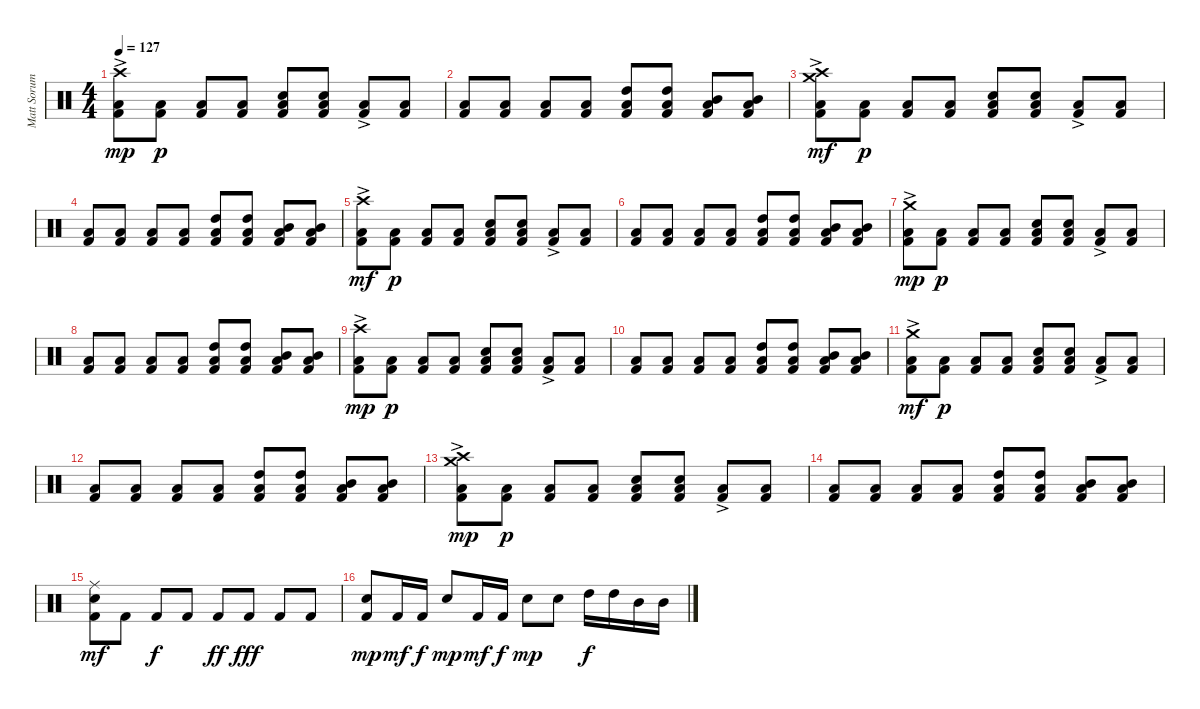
\track ("Matt Sorum" "Matt Sorum") {instrument percussion}
\staff {score}
\articulation defaults
\ts (4 4)
\tempo 127
\clef neutral
\ks c
("Kick (hit) 2"{ac} "Low Tom (hit)" "Crash high (hit)").8{dy mp} ("Kick (hit) 2" "Low Tom (hit)").8{dy p} ("Kick (hit) 2" "Low Tom (hit)").8 ("Kick (hit) 2" "Low Tom (hit)").8 ("Kick (hit) 2" "Snare (hit) 2" "Low Tom (hit)").8 ("Kick (hit) 2" "Snare (hit) 2" "Low Tom (hit)").8 ("Kick (hit) 2"{ac} "Low Tom (hit)").8 ("Kick (hit) 2" "Low Tom (hit)").8 |
("Kick (hit) 2" "Low Tom (hit)").8 ("Kick (hit) 2" "Low Tom (hit)").8 ("Kick (hit) 2" "Low Tom (hit)").8 ("Kick (hit) 2" "Low Tom (hit)").8 ("Kick (hit) 2" "High Tom (hit)" "Low Tom (hit)").8 ("Kick (hit) 2" "High Tom (hit)" "Low Tom (hit)").8 ("Kick (hit) 2" "Mid Tom (hit)" "Low Tom (hit)").8 ("Kick (hit) 2" "Mid Tom (hit)" "Low Tom (hit)").8 |
("Kick (hit) 2"{ac} "Low Tom (hit)" "Crash medium (hit)" "Crash high (hit)").8{dy mf} ("Kick (hit) 2" "Low Tom (hit)").8{dy p} ("Kick (hit) 2" "Low Tom (hit)").8 ("Kick (hit) 2" "Low Tom (hit)").8 ("Kick (hit) 2" "Snare (hit) 2" "Low Tom (hit)").8 ("Kick (hit) 2" "Snare (hit) 2" "Low Tom (hit)").8 ("Kick (hit) 2"{ac} "Low Tom (hit)").8 ("Kick (hit) 2" "Low Tom (hit)").8 |
("Kick (hit) 2" "Low Tom (hit)").8 ("Kick (hit) 2" "Low Tom (hit)").8 ("Kick (hit) 2" "Low Tom (hit)").8 ("Kick (hit) 2" "Low Tom (hit)").8 ("Kick (hit) 2" "High Tom (hit)" "Low Tom (hit)").8 ("Kick (hit) 2" "High Tom (hit)" "Low Tom (hit)").8 ("Kick (hit) 2" "Mid Tom (hit)" "Low Tom (hit)").8 ("Kick (hit) 2" "Mid Tom (hit)" "Low Tom (hit)").8 |
("Kick (hit) 2"{ac} "Low Tom (hit)" "Crash high (hit)").8{dy mf} ("Kick (hit) 2" "Low Tom (hit)").8{dy p} ("Kick (hit) 2" "Low Tom (hit)").8 ("Kick (hit) 2" "Low Tom (hit)").8 ("Kick (hit) 2" "Snare (hit) 2" "Low Tom (hit)").8 ("Kick (hit) 2" "Snare (hit) 2" "Low Tom (hit)").8 ("Kick (hit) 2"{ac} "Low Tom (hit)").8 ("Kick (hit) 2" "Low Tom (hit)").8 |
("Kick (hit) 2" "Low Tom (hit)").8 ("Kick (hit) 2" "Low Tom (hit)").8 ("Kick (hit) 2" "Low Tom (hit)").8 ("Kick (hit) 2" "Low Tom (hit)").8 ("Kick (hit) 2" "High Tom (hit)" "Low Tom (hit)").8 ("Kick (hit) 2" "High Tom (hit)" "Low Tom (hit)").8 ("Kick (hit) 2" "Mid Tom (hit)" "Low Tom (hit)").8 ("Kick (hit) 2" "Mid Tom (hit)" "Low Tom (hit)").8 |
("Kick (hit) 2"{ac} "Low Tom (hit)" "Crash medium (hit)").8{dy mp} ("Kick (hit) 2" "Low Tom (hit)").8{dy p} ("Kick (hit) 2" "Low Tom (hit)").8 ("Kick (hit) 2" "Low Tom (hit)").8 ("Kick (hit) 2" "Snare (hit) 2" "Low Tom (hit)").8 ("Kick (hit) 2" "Snare (hit) 2" "Low Tom (hit)").8 ("Kick (hit) 2"{ac} "Low Tom (hit)").8 ("Kick (hit) 2" "Low Tom (hit)").8 |
("Kick (hit) 2" "Low Tom (hit)").8 ("Kick (hit) 2" "Low Tom (hit)").8 ("Kick (hit) 2" "Low Tom (hit)").8 ("Kick (hit) 2" "Low Tom (hit)").8 ("Kick (hit) 2" "High Tom (hit)" "Low Tom (hit)").8 ("Kick (hit) 2" "High Tom (hit)" "Low Tom (hit)").8 ("Kick (hit) 2" "Mid Tom (hit)" "Low Tom (hit)").8 ("Kick (hit) 2" "Mid Tom (hit)" "Low Tom (hit)").8 |
("Kick (hit) 2"{ac} "Low Tom (hit)" "Crash high (hit)").8{dy mp} ("Kick (hit) 2" "Low Tom (hit)").8{dy p} ("Kick (hit) 2" "Low Tom (hit)").8 ("Kick (hit) 2" "Low Tom (hit)").8 ("Kick (hit) 2" "Snare (hit) 2" "Low Tom (hit)").8 ("Kick (hit) 2" "Snare (hit) 2" "Low Tom (hit)").8 ("Kick (hit) 2"{ac} "Low Tom (hit)").8 ("Kick (hit) 2" "Low Tom (hit)").8 |
("Kick (hit) 2" "Low Tom (hit)").8 ("Kick (hit) 2" "Low Tom (hit)").8 ("Kick (hit) 2" "Low Tom (hit)").8 ("Kick (hit) 2" "Low Tom (hit)").8 ("Kick (hit) 2" "High Tom (hit)" "Low Tom (hit)").8 ("Kick (hit) 2" "High Tom (hit)" "Low Tom (hit)").8 ("Kick (hit) 2" "Mid Tom (hit)" "Low Tom (hit)").8 ("Kick (hit) 2" "Mid Tom (hit)" "Low Tom (hit)").8 |
("Kick (hit) 2"{ac} "Low Tom (hit)" "Crash medium (hit)").8{dy mf} ("Kick (hit) 2" "Low Tom (hit)").8{dy p} ("Kick (hit) 2" "Low Tom (hit)").8 ("Kick (hit) 2" "Low Tom (hit)").8 ("Kick (hit) 2" "Snare (hit) 2" "Low Tom (hit)").8 ("Kick (hit) 2" "Snare (hit) 2" "Low Tom (hit)").8 ("Kick (hit) 2"{ac} "Low Tom (hit)").8 ("Kick (hit) 2" "Low Tom (hit)").8 |
("Kick (hit) 2" "Low Tom (hit)").8 ("Kick (hit) 2" "Low Tom (hit)").8 ("Kick (hit) 2" "Low Tom (hit)").8 ("Kick (hit) 2" "Low Tom (hit)").8 ("Kick (hit) 2" "High Tom (hit)" "Low Tom (hit)").8 ("Kick (hit) 2" "High Tom (hit)" "Low Tom (hit)").8 ("Kick (hit) 2" "Mid Tom (hit)" "Low Tom (hit)").8 ("Kick (hit) 2" "Mid Tom (hit)" "Low Tom (hit)").8 |
("Kick (hit) 2"{ac} "Low Tom (hit)" "Crash medium (hit)" "Crash high (hit)").8{dy mp} ("Kick (hit) 2" "Low Tom (hit)").8{dy p} ("Kick (hit) 2" "Low Tom (hit)").8 ("Kick (hit) 2" "Low Tom (hit)").8 ("Kick (hit) 2" "Snare (hit) 2" "Low Tom (hit)").8 ("Kick (hit) 2" "Snare (hit) 2" "Low Tom (hit)").8 ("Kick (hit) 2"{ac} "Low Tom (hit)").8 ("Kick (hit) 2" "Low Tom (hit)").8 |
("Kick (hit) 2" "Low Tom (hit)").8 ("Kick (hit) 2" "Low Tom (hit)").8 ("Kick (hit) 2" "Low Tom (hit)").8 ("Kick (hit) 2" "Low Tom (hit)").8 ("Kick (hit) 2" "High Tom (hit)" "Low Tom (hit)").8 ("Kick (hit) 2" "High Tom (hit)" "Low Tom (hit)").8 ("Kick (hit) 2" "Mid Tom (hit)" "Low Tom (hit)").8 ("Kick (hit) 2" "Mid Tom (hit)" "Low Tom (hit)").8 |
("Kick (hit) 2" "Snare (hit) 2" "Ride (middle)").8{dy mf} "Kick (hit) 2".8 "Kick (hit) 2".8{dy f} "Kick (hit) 2".8 "Kick (hit) 2".8{dy ff} "Kick (hit) 2".8{dy fff} "Kick (hit) 2".8 "Kick (hit) 2".8 |
("Kick (hit) 2" "Snare (hit) 2").8{dy mp} "Kick (hit) 2".16{dy mf} "Kick (hit) 2".16{dy f} "Snare (hit) 2".8{dy mp} "Kick (hit) 2".16{dy mf} "Kick (hit) 2".16{dy f} "Snare (hit) 2".8{dy mp} "Snare (hit) 2".8 "High Tom (hit)".16{dy f} "High Tom (hit)".16 "Mid Tom (hit)".16 "Mid Tom (hit)".16
